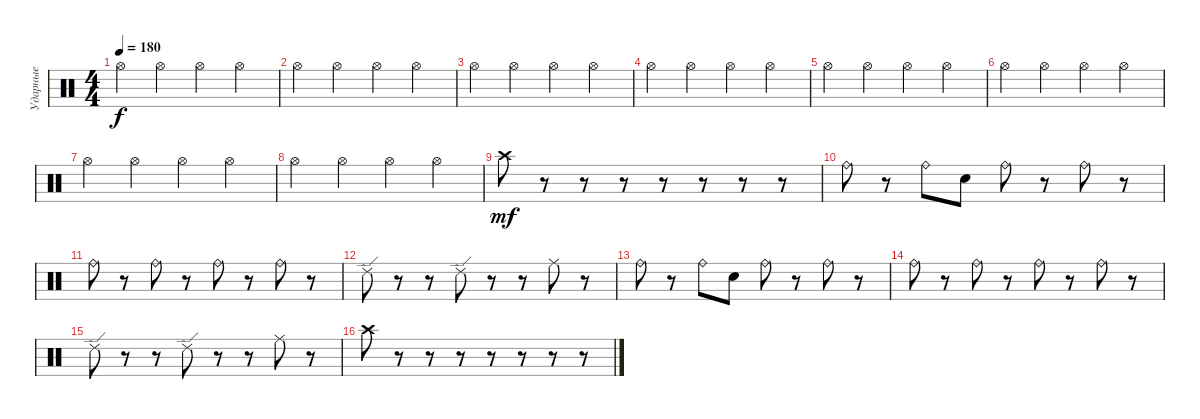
\track ("Ударные" "Ударные") {instrument percussion}
\staff {score}
\articulation defaults
\ts (4 4)
\tempo 180
\clef neutral
\ks c "Hi-Hat (open)".4{dy f} "Hi-Hat (open)".4 "Hi-Hat (open)".4 "Hi-Hat (open)".4
|
"Hi-Hat (open)".4 "Hi-Hat (open)".4 "Hi-Hat (open)".4 "Hi-Hat (open)".4 |
"Hi-Hat (open)".4 "Hi-Hat (open)".4 "Hi-Hat (open)".4 "Hi-Hat (open)".4 |
"Hi-Hat (open)".4 "Hi-Hat (open)".4 "Hi-Hat (open)".4 "Hi-Hat (open)".4 |
"Hi-Hat (open)".4 "Hi-Hat (open)".4 "Hi-Hat (open)".4 "Hi-Hat (open)".4 |
"Hi-Hat (open)".4 "Hi-Hat (open)".4 "Hi-Hat (open)".4 "Hi-Hat (open)".4 |
"Hi-Hat (open)".4 "Hi-Hat (open)".4 "Hi-Hat (open)".4 "Hi-Hat (open)".4 |
"Hi-Hat (open)".4 "Hi-Hat (open)".4 "Hi-Hat (open)".4 "Hi-Hat (open)".4 |
"Crash high (hit)".8{dy mf} r.8 r.8 r.8 r.8 r.8 r.8 r.8 |
"Ride (bell)".8 r.8 "Ride (bell)".8 "Snare (hit)".8 "Ride (bell)".8 r.8 "Ride (bell)".8 r.8 |
"Ride (bell)".8 r.8 "Ride (bell)".8 r.8 "Ride (bell)".8 r.8 "Ride (bell)".8 r.8 |
"Ride (edge) 2".8 r.8 r.8 "Ride (edge) 2".8 r.8 r.8 "Ride (middle)".8 r.8 |
"Ride (bell)".8 r.8 "Ride (bell)".8 "Snare (hit)".8 "Ride (bell)".8 r.8 "Ride (bell)".8 r.8 |
"Ride (bell)".8 r.8 "Ride (bell)".8 r.8 "Ride (bell)".8 r.8 "Ride (bell)".8 r.8 |
"Ride (edge) 2".8 r.8 r.8 "Ride (edge) 2".8 r.8 r.8 "Ride (middle)".8 r.8 |
"Crash high (hit)".8 r.8 r.8 r.8 r.8 r.8 r.8 r.8
